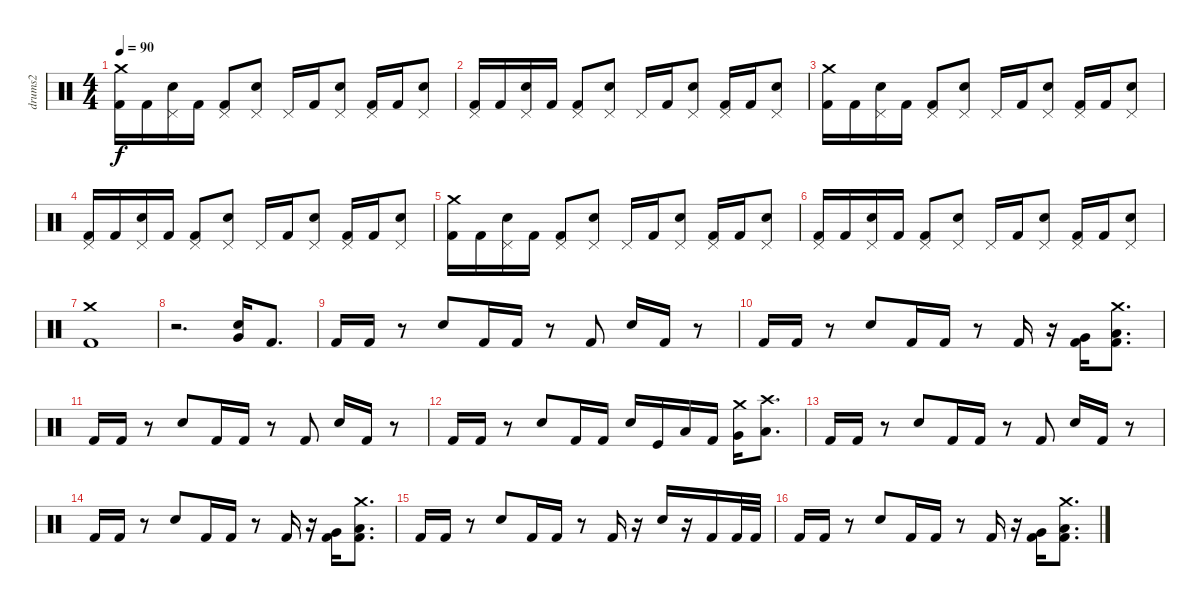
\track ("drums2" "drums2") {instrument percussion}
\staff {score}
\articulation defaults
\ts (4 4)
\tempo 90
\clef neutral
\ks c
("Crash medium (hit)" "Kick (hit) 2").16{dy f} "Kick (hit) 2".16 ("Pedal Hi-Hat (hit)" "Electric Snare (hit)").16 "Kick (hit) 2".16 ("Pedal Hi-Hat (hit)" "Kick (hit) 2").8 ("Pedal Hi-Hat (hit)" "Electric Snare (hit)").8 "Pedal Hi-Hat (hit)".16 "Kick (hit) 2".16 ("Pedal Hi-Hat (hit)" "Electric Snare (hit)").8 ("Pedal Hi-Hat (hit)" "Kick (hit) 2").16 "Kick (hit) 2".16 ("Pedal Hi-Hat (hit)" "Electric Snare (hit)").8 |
("Pedal Hi-Hat (hit)" "Kick (hit) 2").16 "Kick (hit) 2".16 ("Pedal Hi-Hat (hit)" "Electric Snare (hit)").16 "Kick (hit) 2".16 ("Pedal Hi-Hat (hit)" "Kick (hit) 2").8 ("Pedal Hi-Hat (hit)" "Electric Snare (hit)").8 "Pedal Hi-Hat (hit)".16 "Kick (hit) 2".16 ("Pedal Hi-Hat (hit)" "Electric Snare (hit)").8 ("Pedal Hi-Hat (hit)" "Kick (hit) 2").16 "Kick (hit) 2".16 ("Pedal Hi-Hat (hit)" "Electric Snare (hit)").8 |
("Crash medium (hit)" "Kick (hit) 2").16 "Kick (hit) 2".16 ("Pedal Hi-Hat (hit)" "Electric Snare (hit)").16 "Kick (hit) 2".16 ("Pedal Hi-Hat (hit)" "Kick (hit) 2").8 ("Pedal Hi-Hat (hit)" "Electric Snare (hit)").8 "Pedal Hi-Hat (hit)".16 "Kick (hit) 2".16 ("Pedal Hi-Hat (hit)" "Electric Snare (hit)").8 ("Pedal Hi-Hat (hit)" "Kick (hit) 2").16 "Kick (hit) 2".16 ("Pedal Hi-Hat (hit)" "Electric Snare (hit)").8 |
("Pedal Hi-Hat (hit)" "Kick (hit) 2").16 "Kick (hit) 2".16 ("Pedal Hi-Hat (hit)" "Electric Snare (hit)").16 "Kick (hit) 2".16 ("Pedal Hi-Hat (hit)" "Kick (hit) 2").8 ("Pedal Hi-Hat (hit)" "Electric Snare (hit)").8 "Pedal Hi-Hat (hit)".16 "Kick (hit) 2".16 ("Pedal Hi-Hat (hit)" "Electric Snare (hit)").8 ("Pedal Hi-Hat (hit)" "Kick (hit) 2").16 "Kick (hit) 2".16 ("Pedal Hi-Hat (hit)" "Electric Snare (hit)").8 |
("Crash medium (hit)" "Kick (hit) 2").16 "Kick (hit) 2".16 ("Pedal Hi-Hat (hit)" "Electric Snare (hit)").16 "Kick (hit) 2".16 ("Pedal Hi-Hat (hit)" "Kick (hit) 2").8 ("Pedal Hi-Hat (hit)" "Electric Snare (hit)").8 "Pedal Hi-Hat (hit)".16 "Kick (hit) 2".16 ("Pedal Hi-Hat (hit)" "Electric Snare (hit)").8 ("Pedal Hi-Hat (hit)" "Kick (hit) 2").16 "Kick (hit) 2".16 ("Pedal Hi-Hat (hit)" "Electric Snare (hit)").8 |
("Pedal Hi-Hat (hit)" "Kick (hit) 2").16 "Kick (hit) 2".16 ("Pedal Hi-Hat (hit)" "Electric Snare (hit)").16 "Kick (hit) 2".16 ("Pedal Hi-Hat (hit)" "Kick (hit) 2").8 ("Pedal Hi-Hat (hit)" "Electric Snare (hit)").8 "Pedal Hi-Hat (hit)".16 "Kick (hit) 2".16 ("Pedal Hi-Hat (hit)" "Electric Snare (hit)").8 ("Pedal Hi-Hat (hit)" "Kick (hit) 2").16 "Kick (hit) 2".16 ("Pedal Hi-Hat (hit)" "Electric Snare (hit)").8 |
("Crash medium (hit)" "Kick (hit) 2").1 |
r.2{d} ("Electric Snare (hit)" "Very Low Tom (hit)").16 "Kick (hit) 2".8{d} |
"Kick (hit) 2".16 "Kick (hit) 2".16 r.8 "Snare (hit) 2".8 "Kick (hit) 2".16 "Kick (hit) 2".16 r.8 "Kick (hit) 2".8 "Snare (hit) 2".16 "Kick (hit) 2".16 r.8 |
"Kick (hit) 2".16 "Kick (hit) 2".16 r.8 "Snare (hit) 2".8 "Kick (hit) 2".16 "Kick (hit) 2".16 r.8 "Kick (hit) 2".16 r.16 ("Very Low Tom (hit)" "Kick (hit) 2").16 ("Crash medium (hit)" "Kick (hit) 2" "Low Floor Tom (hit)").8{d} |
"Kick (hit) 2".16 "Kick (hit) 2".16 r.8 "Snare (hit) 2".8 "Kick (hit) 2".16 "Kick (hit) 2".16 r.8 "Kick (hit) 2".8 "Snare (hit) 2".16 "Kick (hit) 2".16 r.8 |
"Kick (hit) 2".16 "Kick (hit) 2".16 r.8 "Snare (hit) 2".8 "Kick (hit) 2".16 "Kick (hit) 2".16 "Snare (hit) 2".16 "Kick (hit)".16 "Low Tom (hit)".16 "Kick (hit) 2".16 ("Crash medium (hit)" "Very Low Tom (hit)").16 ("Crash high (hit)" "Low Floor Tom (hit)").8{d} |
"Kick (hit) 2".16 "Kick (hit) 2".16 r.8 "Snare (hit) 2".8 "Kick (hit) 2".16 "Kick (hit) 2".16 r.8 "Kick (hit) 2".8 "Snare (hit) 2".16 "Kick (hit) 2".16 r.8 |
"Kick (hit) 2".16 "Kick (hit) 2".16 r.8 "Snare (hit) 2".8 "Kick (hit) 2".16 "Kick (hit) 2".16 r.8 "Kick (hit) 2".16 r.16 ("Very Low Tom (hit)" "Kick (hit) 2").16 ("Crash medium (hit)" "Kick (hit) 2" "Low Floor Tom (hit)").8{d} |
"Kick (hit) 2".16 "Kick (hit) 2".16 r.8 "Snare (hit) 2".8 "Kick (hit) 2".16 "Kick (hit) 2".16 r.8 "Kick (hit) 2".16 r.16 "Snare (hit) 2".16 r.16 "Kick (hit) 2".16 "Kick (hit) 2".32 "Kick (hit) 2".32 |
"Kick (hit) 2".16 "Kick (hit) 2".16 r.8 "Snare (hit) 2".8 "Kick (hit) 2".16 "Kick (hit) 2".16 r.8 "Kick (hit) 2".16 r.16 ("Very Low Tom (hit)" "Kick (hit) 2").16 ("Crash medium (hit)" "Kick (hit) 2" "Low Floor Tom (hit)").8{d}
